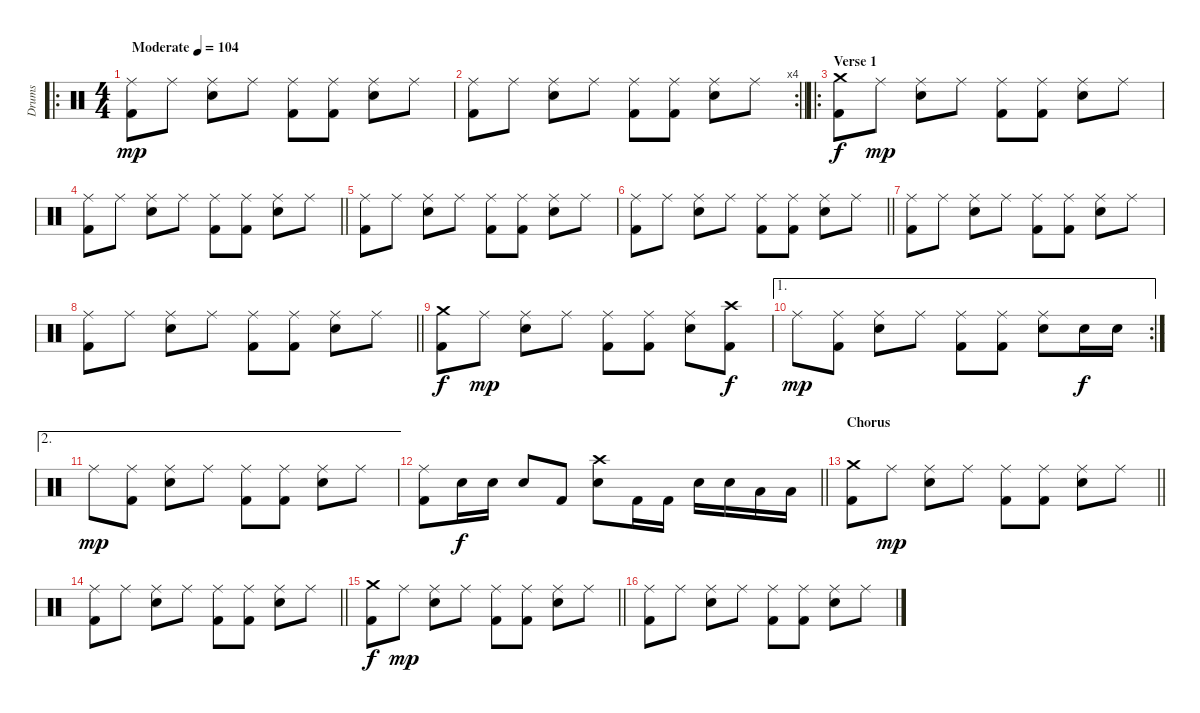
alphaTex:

\track ("Drums" "Drums") {instrument percussion}
\staff {score}
\articulation defaults
\ro
\ts (4 4)
\tempo (104 "Moderate")
\clef neutral
\ks c
("Kick (hit) 2" "Ride (middle)").8{dy mp} "Ride (middle)".8 ("Electric Snare (hit)" "Ride (middle)").8 "Ride (middle)".8 ("Kick (hit) 2" "Ride (middle)").8 ("Kick (hit) 2" "Ride (middle)").8 ("Electric Snare (hit)" "Ride (middle)").8 "Ride (middle)".8 |
\rc 4
\barLineRight lightlight
("Kick (hit) 2" "Ride (middle)").8 "Ride (middle)".8 ("Electric Snare (hit)" "Ride (middle)").8 "Ride (middle)".8 ("Kick (hit) 2" "Ride (middle)").8 ("Kick (hit) 2" "Ride (middle)").8 ("Electric Snare (hit)" "Ride (middle)").8 "Ride (middle)".8 |
\ro
\section ("" "Verse 1")
("Kick (hit) 2" "Crash medium (hit)").8{dy f} "Ride (middle)".8{dy mp} ("Electric Snare (hit)" "Ride (middle)").8 "Ride (middle)".8 ("Kick (hit) 2" "Ride (middle)").8 ("Kick (hit) 2" "Ride (middle)").8 ("Electric Snare (hit)" "Ride (middle)").8 "Ride (middle)".8 |
\barLineRight lightlight
("Kick (hit) 2" "Ride (middle)").8 "Ride (middle)".8 ("Electric Snare (hit)" "Ride (middle)").8 "Ride (middle)".8 ("Kick (hit) 2" "Ride (middle)").8 ("Kick (hit) 2" "Ride (middle)").8 ("Electric Snare (hit)" "Ride (middle)").8 "Ride (middle)".8 |
("Kick (hit) 2" "Ride (middle)").8 "Ride (middle)".8 ("Electric Snare (hit)" "Ride (middle)").8 "Ride (middle)".8 ("Kick (hit) 2" "Ride (middle)").8 ("Kick (hit) 2" "Ride (middle)").8 ("Electric Snare (hit)" "Ride (middle)").8 "Ride (middle)".8 |
\barLineRight lightlight
("Kick (hit) 2" "Ride (middle)").8 "Ride (middle)".8 ("Electric Snare (hit)" "Ride (middle)").8 "Ride (middle)".8 ("Kick (hit) 2" "Ride (middle)").8 ("Kick (hit) 2" "Ride (middle)").8 ("Electric Snare (hit)" "Ride (middle)").8 "Ride (middle)".8 |
("Kick (hit) 2" "Ride (middle)").8 "Ride (middle)".8 ("Electric Snare (hit)" "Ride (middle)").8 "Ride (middle)".8 ("Kick (hit) 2" "Ride (middle)").8 ("Kick (hit) 2" "Ride (middle)").8 ("Electric Snare (hit)" "Ride (middle)").8 "Ride (middle)".8 |
\barLineRight lightlight
("Kick (hit) 2" "Ride (middle)").8 "Ride (middle)".8 ("Electric Snare (hit)" "Ride (middle)").8 "Ride (middle)".8 ("Kick (hit) 2" "Ride (middle)").8 ("Kick (hit) 2" "Ride (middle)").8 ("Electric Snare (hit)" "Ride (middle)").8 "Ride (middle)".8 |
("Kick (hit) 2" "Crash medium (hit)").8{dy f} "Ride (middle)".8{dy mp} ("Electric Snare (hit)" "Ride (middle)").8 "Ride (middle)".8 ("Kick (hit) 2" "Ride (middle)").8 ("Kick (hit) 2" "Ride (middle)").8 ("Electric Snare (hit)" "Ride (middle)").8 ("Kick (hit) 2" "Crash high (hit)").8{dy f} |
\ae 1
\rc 2 "Ride (middle)".8{dy mp}
("Kick (hit) 2" "Ride (middle)").8 ("Electric Snare (hit)" "Ride (middle)").8 "Ride (middle)".8 ("Kick (hit) 2" "Ride (middle)").8 ("Kick (hit) 2" "Ride (middle)").8 ("Electric Snare (hit)" "Ride (middle)").8 "Electric Snare (hit)".16{dy f} "Electric Snare (hit)".16 |
\ae 2 "Ride (middle)".8{dy mp}
("Kick (hit) 2" "Ride (middle)").8 ("Electric Snare (hit)" "Ride (middle)").8 "Ride (middle)".8 ("Kick (hit) 2" "Ride (middle)").8 ("Kick (hit) 2" "Ride (middle)").8 ("Electric Snare (hit)" "Ride (middle)").8 "Ride (middle)".8 |
\barLineRight lightlight
("Kick (hit) 2" "Ride (middle)").8 "Electric Snare (hit)".16{dy f} "Electric Snare (hit)".16 "Electric Snare (hit)".8 "Kick (hit) 2".8 ("Electric Snare (hit)" "Crash high (hit)").8 "Kick (hit) 2".16 "Kick (hit) 2".16 "Electric Snare (hit)".16 "Electric Snare (hit)".16 "Low Tom (hit)".16 "Low Tom (hit)".16 |
\section ("" "Chorus")
\barLineRight lightlight
("Kick (hit) 2" "Crash medium (hit)").8 "Ride (middle)".8{dy mp} ("Electric Snare (hit)" "Ride (middle)").8 "Ride (middle)".8 ("Kick (hit) 2" "Ride (middle)").8 ("Kick (hit) 2" "Ride (middle)").8 ("Electric Snare (hit)" "Ride (middle)").8 "Ride (middle)".8 |
\barLineRight lightlight
("Kick (hit) 2" "Ride (middle)").8 "Ride (middle)".8 ("Electric Snare (hit)" "Ride (middle)").8 "Ride (middle)".8 ("Kick (hit) 2" "Ride (middle)").8 ("Kick (hit) 2" "Ride (middle)").8 ("Electric Snare (hit)" "Ride (middle)").8 "Ride (middle)".8 |
\barLineRight lightlight
("Kick (hit) 2" "Crash medium (hit)").8{dy f} "Ride (middle)".8{dy mp} ("Electric Snare (hit)" "Ride (middle)").8 "Ride (middle)".8 ("Kick (hit) 2" "Ride (middle)").8 ("Kick (hit) 2" "Ride (middle)").8 ("Electric Snare (hit)" "Ride (middle)").8 "Ride (middle)".8 |
("Kick (hit) 2" "Ride (middle)").8 "Ride (middle)".8 ("Electric Snare (hit)" "Ride (middle)").8 "Ride (middle)".8 ("Kick (hit) 2" "Ride (middle)").8 ("Kick (hit) 2" "Ride (middle)").8 ("Electric Snare (hit)" "Ride (middle)").8 "Ride (middle)".8
